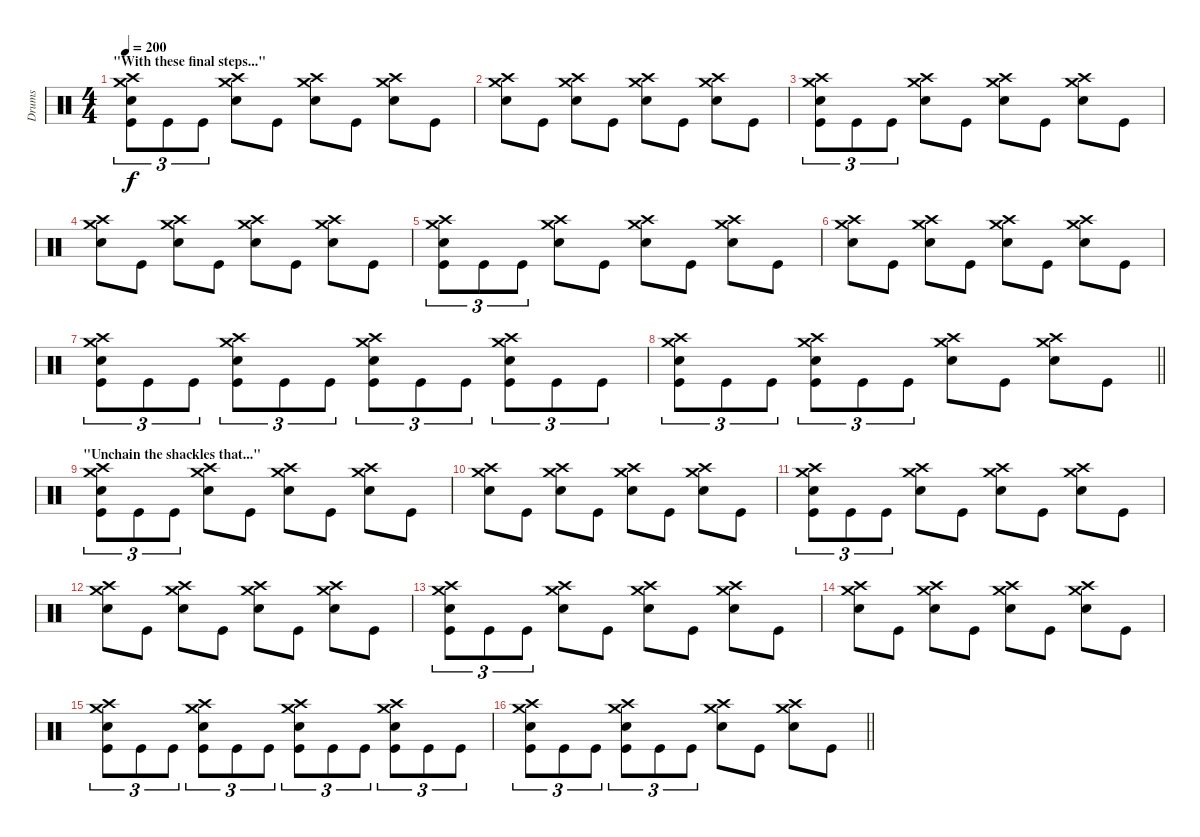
\track ("Drums" "Drums") {instrument percussion}
\staff {score}
\articulation defaults
\ts (4 4)
\section ("" "\"With these final steps...\"")
\tempo 200
\clef neutral
\ks c
("Crash medium (hit)" "Crash high (hit)" "Electric Snare (hit)" "Kick (hit)").8{tu (3 2) dy f} "Kick (hit)".8{tu (3 2)} "Kick (hit)".8{tu (3 2)} ("Crash medium (hit)" "Crash high (hit)" "Electric Snare (hit)").8 "Kick (hit)".8 ("Crash medium (hit)" "Crash high (hit)" "Electric Snare (hit)").8 "Kick (hit)".8 ("Crash medium (hit)" "Crash high (hit)" "Electric Snare (hit)").8 "Kick (hit)".8 |
("Crash medium (hit)" "Crash high (hit)" "Electric Snare (hit)").8 "Kick (hit)".8 ("Crash medium (hit)" "Crash high (hit)" "Electric Snare (hit)").8 "Kick (hit)".8 ("Crash medium (hit)" "Crash high (hit)" "Electric Snare (hit)").8 "Kick (hit)".8 ("Crash medium (hit)" "Crash high (hit)" "Electric Snare (hit)").8 "Kick (hit)".8 |
("Crash medium (hit)" "Crash high (hit)" "Electric Snare (hit)" "Kick (hit)").8{tu (3 2)} "Kick (hit)".8{tu (3 2)} "Kick (hit)".8{tu (3 2)} ("Crash medium (hit)" "Crash high (hit)" "Electric Snare (hit)").8 "Kick (hit)".8 ("Crash medium (hit)" "Crash high (hit)" "Electric Snare (hit)").8 "Kick (hit)".8 ("Crash medium (hit)" "Crash high (hit)" "Electric Snare (hit)").8 "Kick (hit)".8 |
("Crash medium (hit)" "Crash high (hit)" "Electric Snare (hit)").8 "Kick (hit)".8 ("Crash medium (hit)" "Crash high (hit)" "Electric Snare (hit)").8 "Kick (hit)".8 ("Crash medium (hit)" "Crash high (hit)" "Electric Snare (hit)").8 "Kick (hit)".8 ("Crash medium (hit)" "Crash high (hit)" "Electric Snare (hit)").8 "Kick (hit)".8 |
("Crash medium (hit)" "Crash high (hit)" "Electric Snare (hit)" "Kick (hit)").8{tu (3 2)} "Kick (hit)".8{tu (3 2)} "Kick (hit)".8{tu (3 2)} ("Crash medium (hit)" "Crash high (hit)" "Electric Snare (hit)").8 "Kick (hit)".8 ("Crash medium (hit)" "Crash high (hit)" "Electric Snare (hit)").8 "Kick (hit)".8 ("Crash medium (hit)" "Crash high (hit)" "Electric Snare (hit)").8 "Kick (hit)".8 |
("Crash medium (hit)" "Crash high (hit)" "Electric Snare (hit)").8 "Kick (hit)".8 ("Crash medium (hit)" "Crash high (hit)" "Electric Snare (hit)").8 "Kick (hit)".8 ("Crash medium (hit)" "Crash high (hit)" "Electric Snare (hit)").8 "Kick (hit)".8 ("Crash medium (hit)" "Crash high (hit)" "Electric Snare (hit)").8 "Kick (hit)".8 |
("Crash medium (hit)" "Crash high (hit)" "Electric Snare (hit)" "Kick (hit)").8{tu (3 2)} "Kick (hit)".8{tu (3 2)} "Kick (hit)".8{tu (3 2)} ("Crash medium (hit)" "Crash high (hit)" "Electric Snare (hit)" "Kick (hit)").8{tu (3 2)} "Kick (hit)".8{tu (3 2)} "Kick (hit)".8{tu (3 2)} ("Crash medium (hit)" "Crash high (hit)" "Electric Snare (hit)" "Kick (hit)").8{tu (3 2)} "Kick (hit)".8{tu (3 2)} "Kick (hit)".8{tu (3 2)} ("Crash medium (hit)" "Crash high (hit)" "Electric Snare (hit)" "Kick (hit)").8{tu (3 2)} "Kick (hit)".8{tu (3 2)} "Kick (hit)".8{tu (3 2)} |
\barLineRight lightlight
("Crash medium (hit)" "Crash high (hit)" "Electric Snare (hit)" "Kick (hit)").8{tu (3 2)} "Kick (hit)".8{tu (3 2)} "Kick (hit)".8{tu (3 2)} ("Crash medium (hit)" "Crash high (hit)" "Electric Snare (hit)" "Kick (hit)").8{tu (3 2)} "Kick (hit)".8{tu (3 2)} "Kick (hit)".8{tu (3 2)} ("Crash medium (hit)" "Crash high (hit)" "Electric Snare (hit)").8 "Kick (hit)".8 ("Crash medium (hit)" "Crash high (hit)" "Electric Snare (hit)").8 "Kick (hit)".8 |
\section ("" "\"Unchain the shackles that...\"")
("Crash medium (hit)" "Crash high (hit)" "Electric Snare (hit)" "Kick (hit)").8{tu (3 2)} "Kick (hit)".8{tu (3 2)} "Kick (hit)".8{tu (3 2)} ("Crash medium (hit)" "Crash high (hit)" "Electric Snare (hit)").8 "Kick (hit)".8 ("Crash medium (hit)" "Crash high (hit)" "Electric Snare (hit)").8 "Kick (hit)".8 ("Crash medium (hit)" "Crash high (hit)" "Electric Snare (hit)").8 "Kick (hit)".8 |
("Crash medium (hit)" "Crash high (hit)" "Electric Snare (hit)").8 "Kick (hit)".8 ("Crash medium (hit)" "Crash high (hit)" "Electric Snare (hit)").8 "Kick (hit)".8 ("Crash medium (hit)" "Crash high (hit)" "Electric Snare (hit)").8 "Kick (hit)".8 ("Crash medium (hit)" "Crash high (hit)" "Electric Snare (hit)").8 "Kick (hit)".8 |
("Crash medium (hit)" "Crash high (hit)" "Electric Snare (hit)" "Kick (hit)").8{tu (3 2)} "Kick (hit)".8{tu (3 2)} "Kick (hit)".8{tu (3 2)} ("Crash medium (hit)" "Crash high (hit)" "Electric Snare (hit)").8 "Kick (hit)".8 ("Crash medium (hit)" "Crash high (hit)" "Electric Snare (hit)").8 "Kick (hit)".8 ("Crash medium (hit)" "Crash high (hit)" "Electric Snare (hit)").8 "Kick (hit)".8 |
("Crash medium (hit)" "Crash high (hit)" "Electric Snare (hit)").8 "Kick (hit)".8 ("Crash medium (hit)" "Crash high (hit)" "Electric Snare (hit)").8 "Kick (hit)".8 ("Crash medium (hit)" "Crash high (hit)" "Electric Snare (hit)").8 "Kick (hit)".8 ("Crash medium (hit)" "Crash high (hit)" "Electric Snare (hit)").8 "Kick (hit)".8 |
("Crash medium (hit)" "Crash high (hit)" "Electric Snare (hit)" "Kick (hit)").8{tu (3 2)} "Kick (hit)".8{tu (3 2)} "Kick (hit)".8{tu (3 2)} ("Crash medium (hit)" "Crash high (hit)" "Electric Snare (hit)").8 "Kick (hit)".8 ("Crash medium (hit)" "Crash high (hit)" "Electric Snare (hit)").8 "Kick (hit)".8 ("Crash medium (hit)" "Crash high (hit)" "Electric Snare (hit)").8 "Kick (hit)".8 |
("Crash medium (hit)" "Crash high (hit)" "Electric Snare (hit)").8 "Kick (hit)".8 ("Crash medium (hit)" "Crash high (hit)" "Electric Snare (hit)").8 "Kick (hit)".8 ("Crash medium (hit)" "Crash high (hit)" "Electric Snare (hit)").8 "Kick (hit)".8 ("Crash medium (hit)" "Crash high (hit)" "Electric Snare (hit)").8 "Kick (hit)".8 |
("Crash medium (hit)" "Crash high (hit)" "Electric Snare (hit)" "Kick (hit)").8{tu (3 2)} "Kick (hit)".8{tu (3 2)} "Kick (hit)".8{tu (3 2)} ("Crash medium (hit)" "Crash high (hit)" "Electric Snare (hit)" "Kick (hit)").8{tu (3 2)} "Kick (hit)".8{tu (3 2)} "Kick (hit)".8{tu (3 2)} ("Crash medium (hit)" "Crash high (hit)" "Electric Snare (hit)" "Kick (hit)").8{tu (3 2)} "Kick (hit)".8{tu (3 2)} "Kick (hit)".8{tu (3 2)} ("Crash medium (hit)" "Crash high (hit)" "Electric Snare (hit)" "Kick (hit)").8{tu (3 2)} "Kick (hit)".8{tu (3 2)} "Kick (hit)".8{tu (3 2)} |
\barLineRight lightlight
("Crash medium (hit)" "Crash high (hit)" "Electric Snare (hit)" "Kick (hit)").8{tu (3 2)} "Kick (hit)".8{tu (3 2)} "Kick (hit)".8{tu (3 2)} ("Crash medium (hit)" "Crash high (hit)" "Electric Snare (hit)" "Kick (hit)").8{tu (3 2)} "Kick (hit)".8{tu (3 2)} "Kick (hit)".8{tu (3 2)} ("Crash medium (hit)" "Crash high (hit)" "Electric Snare (hit)").8 "Kick (hit)".8 ("Crash medium (hit)" "Crash high (hit)" "Electric Snare (hit)").8 "Kick (hit)".8
